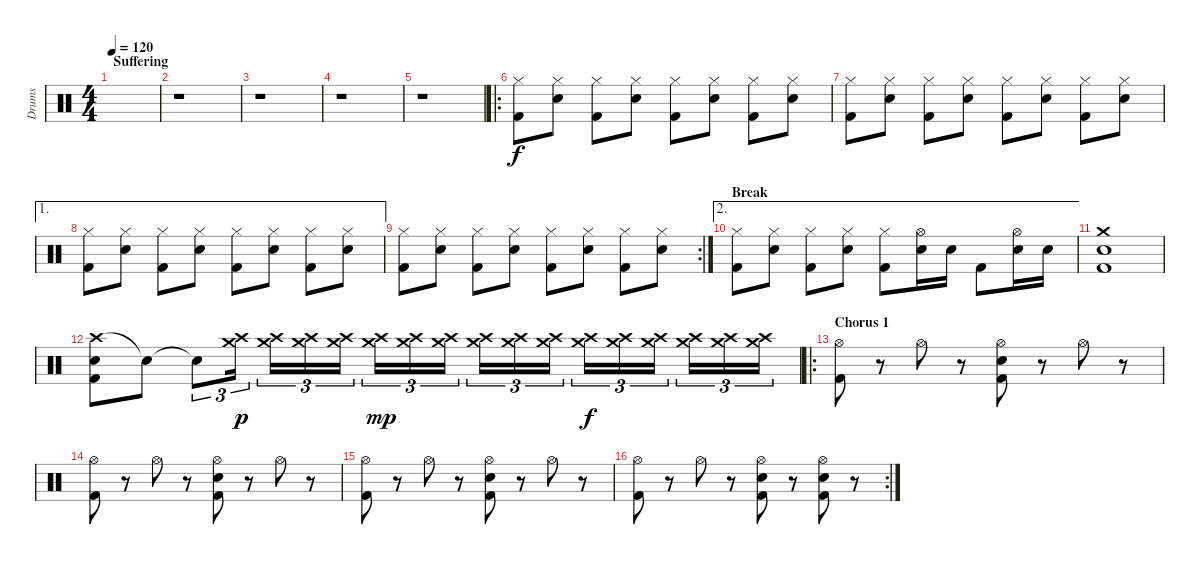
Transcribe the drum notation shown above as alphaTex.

\track ("Drums" "Drums") {instrument percussion}
\staff {score}
\articulation defaults
\ts (4 4)
\section ("" "Suffering")
\tempo 120
\clef neutral
\ks c
|
r.1 |
r.1 |
r.1 |
r.1 |
\ro
("Hi-Hat (closed)" "Kick (hit) 2").8 ("Hi-Hat (closed)" "Snare (hit) 2").8 ("Hi-Hat (closed)" "Kick (hit) 2").8 ("Hi-Hat (closed)" "Snare (hit) 2").8 ("Hi-Hat (closed)" "Kick (hit) 2").8 ("Hi-Hat (closed)" "Snare (hit) 2").8 ("Hi-Hat (closed)" "Kick (hit) 2").8 ("Hi-Hat (closed)" "Snare (hit) 2").8 |
("Hi-Hat (closed)" "Kick (hit) 2").8 ("Hi-Hat (closed)" "Snare (hit) 2").8 ("Hi-Hat (closed)" "Kick (hit) 2").8 ("Hi-Hat (closed)" "Snare (hit) 2").8 ("Hi-Hat (closed)" "Kick (hit) 2").8 ("Hi-Hat (closed)" "Snare (hit) 2").8 ("Hi-Hat (closed)" "Kick (hit) 2").8 ("Hi-Hat (closed)" "Snare (hit) 2").8 |
\ae 1
("Hi-Hat (closed)" "Kick (hit) 2").8 ("Hi-Hat (closed)" "Snare (hit) 2").8 ("Hi-Hat (closed)" "Kick (hit) 2").8 ("Hi-Hat (closed)" "Snare (hit) 2").8 ("Hi-Hat (closed)" "Kick (hit) 2").8 ("Hi-Hat (closed)" "Snare (hit) 2").8 ("Hi-Hat (closed)" "Kick (hit) 2").8 ("Hi-Hat (closed)" "Snare (hit) 2").8 |
\rc 2
("Hi-Hat (closed)" "Kick (hit) 2").8 ("Hi-Hat (closed)" "Snare (hit) 2").8 ("Hi-Hat (closed)" "Kick (hit) 2").8 ("Hi-Hat (closed)" "Snare (hit) 2").8 ("Hi-Hat (closed)" "Kick (hit) 2").8 ("Hi-Hat (closed)" "Snare (hit) 2").8 ("Hi-Hat (closed)" "Kick (hit) 2").8 ("Hi-Hat (closed)" "Snare (hit) 2").8 |
\ae 2
\section ("" "Break")
("Hi-Hat (closed)" "Kick (hit) 2").8 ("Hi-Hat (closed)" "Snare (hit) 2").8 ("Hi-Hat (closed)" "Kick (hit) 2").8 ("Hi-Hat (closed)" "Snare (hit) 2").8 ("Hi-Hat (closed)" "Kick (hit) 2").8 ("Hi-Hat (open)" "Snare (hit) 2").16 "Snare (hit) 2".16 "Kick (hit) 2".8 ("Hi-Hat (open)" "Snare (hit) 2").16 "Snare (hit) 2".16 |
("Crash medium (hit)" "Snare (hit) 2" "Kick (hit) 2").1 |
("Crash high (hit)" "Snare (hit) 2" "Kick (hit) 2").8 "Snare (hit)"{t}.8 "Snare (hit)"{t}.8{tu (3 2)} ("Crash medium (hit)" "Crash high (hit)").16{tu (3 2) dy p} ("Crash medium (hit)" "Crash high (hit)").16{tu (3 2)} ("Crash medium (hit)" "Crash high (hit)").16{tu (3 2)} ("Crash medium (hit)" "Crash high (hit)").16{tu (3 2)} ("Crash medium (hit)" "Crash high (hit)").16{tu (3 2) dy mp} ("Crash medium (hit)" "Crash high (hit)").16{tu (3 2)} ("Crash medium (hit)" "Crash high (hit)").16{tu (3 2)} ("Crash medium (hit)" "Crash high (hit)").16{tu (3 2)} ("Crash medium (hit)" "Crash high (hit)").16{tu (3 2)} ("Crash medium (hit)" "Crash high (hit)").16{tu (3 2)} ("Crash medium (hit)" "Crash high (hit)").16{tu (3 2) dy f} ("Crash medium (hit)" "Crash high (hit)").16{tu (3 2)} ("Crash medium (hit)" "Crash high (hit)").16{tu (3 2)} ("Crash medium (hit)" "Crash high (hit)").16{tu (3 2)} ("Crash medium (hit)" "Crash high (hit)").16{tu (3 2)} ("Crash medium (hit)" "Crash high (hit)").16{tu (3 2)} |
\ro
\section ("" "Chorus 1")
("Hi-Hat (open)" "Kick (hit) 2").8 r.8 "Hi-Hat (open)".8 r.8 ("Hi-Hat (open)" "Snare (hit) 2" "Kick (hit) 2").8 r.8 "Hi-Hat (open)".8 r.8 |
("Hi-Hat (open)" "Kick (hit) 2").8 r.8 "Hi-Hat (open)".8 r.8 ("Hi-Hat (open)" "Snare (hit) 2" "Kick (hit) 2").8 r.8 "Hi-Hat (open)".8 r.8 |
("Hi-Hat (open)" "Kick (hit) 2").8 r.8 "Hi-Hat (open)".8 r.8 ("Hi-Hat (open)" "Snare (hit) 2" "Kick (hit) 2").8 r.8 "Hi-Hat (open)".8 r.8 |
\rc 2
("Hi-Hat (open)" "Kick (hit) 2").8 r.8 "Hi-Hat (open)".8 r.8 ("Hi-Hat (open)" "Snare (hit) 2" "Kick (hit) 2").8 r.8 ("Hi-Hat (open)" "Snare (hit) 2" "Kick (hit) 2").8 r.8
